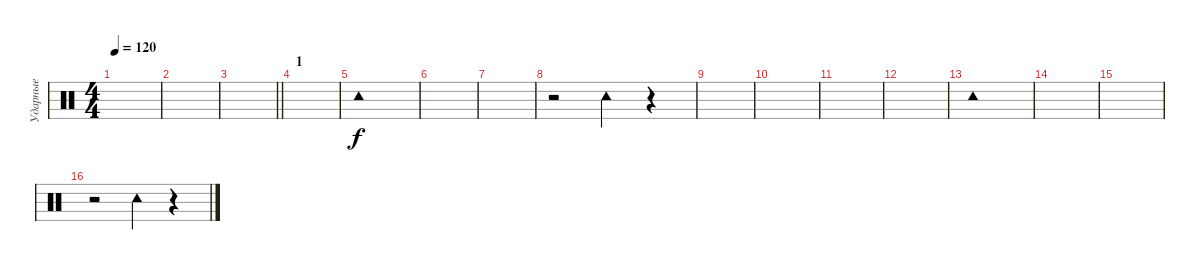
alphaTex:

\track ("Ударные" "Ударные") {instrument percussion}
\staff {score}
\articulation defaults
\ts (4 4)
\tempo 120
\clef neutral
\ks c
|
|
\barLineRight lightlight
|
\section ("" "1")
|
"Tambourine (hit)".1 |
|
|
r.2 "Tambourine (hit)".4 r.4 |
|
|
|
|
"Tambourine (hit)".1 |
|
|
r.2 "Tambourine (hit)".4 r.4
